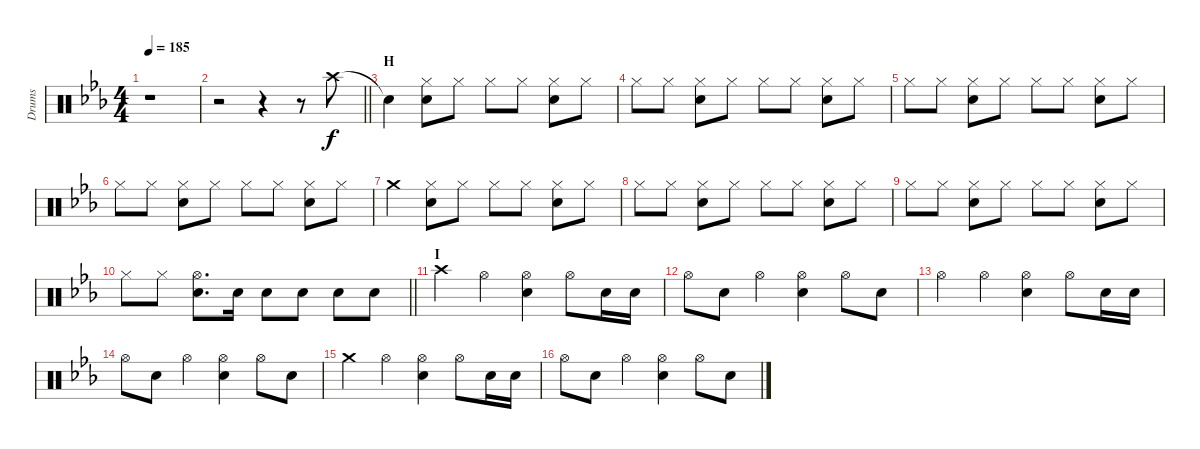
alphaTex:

\track ("Drums" "Drums") {instrument percussion}
\staff {score}
\articulation defaults
\ts (4 4)
\tempo 185
\clef neutral
\ks eb
r.1{dy f} |
\barLineRight lightlight
r.2 r.4 r.8 "Crash high (hit)".8 |
\section ("" "H")
"Snare (hit)"{t}.4 ("Hi-Hat (closed)" "Snare (hit) 2").8 "Hi-Hat (closed)".8 "Hi-Hat (closed)".8 "Hi-Hat (closed)".8 ("Hi-Hat (closed)" "Snare (hit) 2").8 "Hi-Hat (closed)".8 |
"Hi-Hat (closed)".8 "Hi-Hat (closed)".8 ("Hi-Hat (closed)" "Snare (hit) 2").8 "Hi-Hat (closed)".8 "Hi-Hat (closed)".8 "Hi-Hat (closed)".8 ("Hi-Hat (closed)" "Snare (hit) 2").8 "Hi-Hat (closed)".8 |
"Hi-Hat (closed)".8 "Hi-Hat (closed)".8 ("Hi-Hat (closed)" "Snare (hit) 2").8 "Hi-Hat (closed)".8 "Hi-Hat (closed)".8 "Hi-Hat (closed)".8 ("Hi-Hat (closed)" "Snare (hit) 2").8 "Hi-Hat (closed)".8 |
"Hi-Hat (closed)".8 "Hi-Hat (closed)".8 ("Hi-Hat (closed)" "Snare (hit) 2").8 "Hi-Hat (closed)".8 "Hi-Hat (closed)".8 "Hi-Hat (closed)".8 ("Hi-Hat (closed)" "Snare (hit) 2").8 "Hi-Hat (closed)".8 |
"Crash medium (hit)".4 ("Hi-Hat (closed)" "Snare (hit) 2").8 "Hi-Hat (closed)".8 "Hi-Hat (closed)".8 "Hi-Hat (closed)".8 ("Hi-Hat (closed)" "Snare (hit) 2").8 "Hi-Hat (closed)".8 |
"Hi-Hat (closed)".8 "Hi-Hat (closed)".8 ("Hi-Hat (closed)" "Snare (hit) 2").8 "Hi-Hat (closed)".8 "Hi-Hat (closed)".8 "Hi-Hat (closed)".8 ("Hi-Hat (closed)" "Snare (hit) 2").8 "Hi-Hat (closed)".8 |
"Hi-Hat (closed)".8 "Hi-Hat (closed)".8 ("Hi-Hat (closed)" "Snare (hit) 2").8 "Hi-Hat (closed)".8 "Hi-Hat (closed)".8 "Hi-Hat (closed)".8 ("Hi-Hat (closed)" "Snare (hit) 2").8 "Hi-Hat (closed)".8 |
\barLineRight lightlight "Hi-Hat (closed)".8 "Hi-Hat (closed)".8
("Hi-Hat (open)" "Snare (hit) 2").8{d} "Snare (hit) 2".16 "Snare (hit) 2".8 "Snare (hit) 2".8 "Snare (hit) 2".8 "Snare (hit) 2".8 |
\section ("" "I")
"Crash high (hit)".4 "Hi-Hat (open)".4 ("Hi-Hat (open)" "Snare (hit) 2").4 "Hi-Hat (open)".8 "Snare (hit) 2".16 "Snare (hit) 2".16 |
"Hi-Hat (open)".8 "Snare (hit) 2".8 "Hi-Hat (open)".4 ("Hi-Hat (open)" "Snare (hit) 2").4 "Hi-Hat (open)".8 "Snare (hit) 2".8 |
"Hi-Hat (open)".4 "Hi-Hat (open)".4 ("Hi-Hat (open)" "Snare (hit) 2").4 "Hi-Hat (open)".8 "Snare (hit) 2".16 "Snare (hit) 2".16 |
"Hi-Hat (open)".8 "Snare (hit) 2".8 "Hi-Hat (open)".4 ("Hi-Hat (open)" "Snare (hit) 2").4 "Hi-Hat (open)".8 "Snare (hit) 2".8 |
"Crash medium (hit)".4 "Hi-Hat (open)".4 ("Hi-Hat (open)" "Snare (hit) 2").4 "Hi-Hat (open)".8 "Snare (hit) 2".16 "Snare (hit) 2".16 |
"Hi-Hat (open)".8 "Snare (hit) 2".8 "Hi-Hat (open)".4 ("Hi-Hat (open)" "Snare (hit) 2").4 "Hi-Hat (open)".8 "Snare (hit) 2".8
